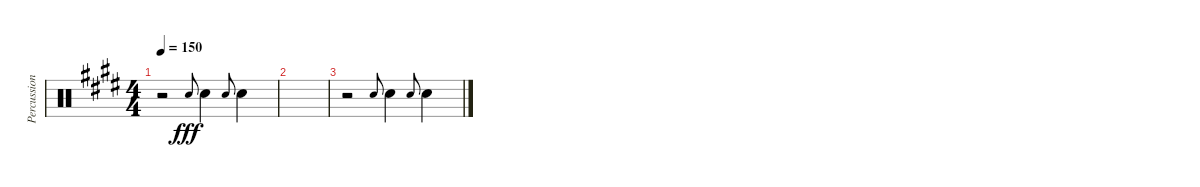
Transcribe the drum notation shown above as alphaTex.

\track ("Percussion" "Percussion") {instrument percussion}
\staff {score}
\articulation defaults
\ts (4 4)
\tempo 150
\clef neutral
\ks e
r.2{dy fff} "Hand Clap (hit)".8{gr onbeat} "Hand Clap (hit)".4 "Hand Clap (hit)".8{gr onbeat} "Hand Clap (hit)".4 |
|
r.2 "Hand Clap (hit)".8{gr onbeat} "Hand Clap (hit)".4 "Hand Clap (hit)".8{gr onbeat} "Hand Clap (hit)".4
